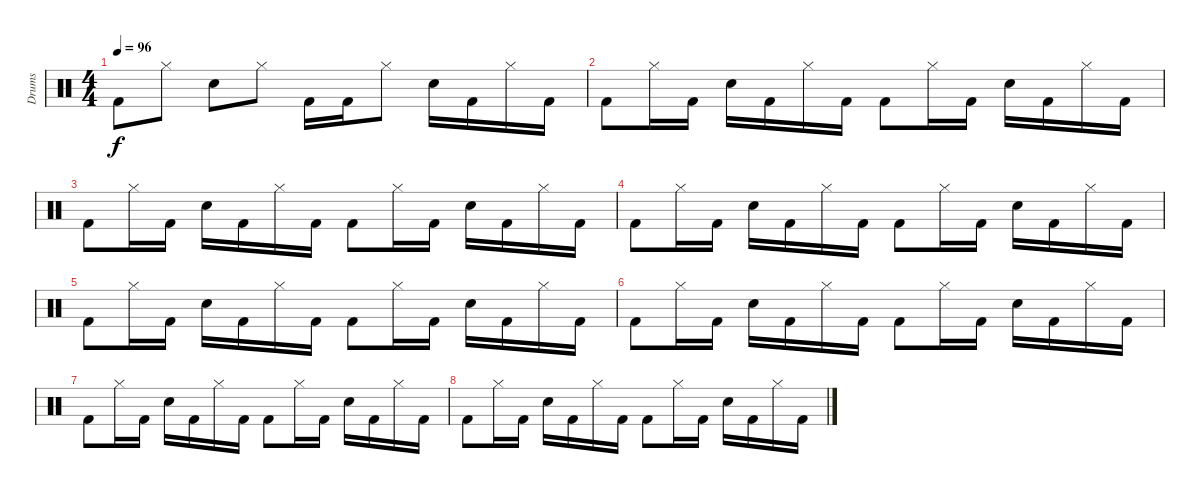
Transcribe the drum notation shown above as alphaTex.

\track ("Drums" "Drums") {instrument percussion}
\staff {score}
\articulation defaults
\ts (4 4)
\tempo 96
\clef neutral
\ks c "Kick (hit) 2".8{dy f} "Hi-Hat (closed)".8 "Snare (hit) 2".8 "Hi-Hat (closed)".8 "Kick (hit) 2".16 "Kick (hit) 2".16 "Hi-Hat (closed)".8 "Snare (hit) 2".16 "Kick (hit) 2".16 "Hi-Hat (closed)".16 "Kick (hit) 2".16
|
"Kick (hit) 2".8 "Hi-Hat (closed)".16 "Kick (hit) 2".16 "Snare (hit) 2".16 "Kick (hit) 2".16 "Hi-Hat (closed)".16 "Kick (hit) 2".16 "Kick (hit) 2".8 "Hi-Hat (closed)".16 "Kick (hit) 2".16 "Snare (hit) 2".16 "Kick (hit) 2".16 "Hi-Hat (closed)".16 "Kick (hit) 2".16 |
"Kick (hit) 2".8 "Hi-Hat (closed)".16 "Kick (hit) 2".16 "Snare (hit) 2".16 "Kick (hit) 2".16 "Hi-Hat (closed)".16 "Kick (hit) 2".16 "Kick (hit) 2".8 "Hi-Hat (closed)".16 "Kick (hit) 2".16 "Snare (hit) 2".16 "Kick (hit) 2".16 "Hi-Hat (closed)".16 "Kick (hit) 2".16 |
"Kick (hit) 2".8 "Hi-Hat (closed)".16 "Kick (hit) 2".16 "Snare (hit) 2".16 "Kick (hit) 2".16 "Hi-Hat (closed)".16 "Kick (hit) 2".16 "Kick (hit) 2".8 "Hi-Hat (closed)".16 "Kick (hit) 2".16 "Snare (hit) 2".16 "Kick (hit) 2".16 "Hi-Hat (closed)".16 "Kick (hit) 2".16 |
"Kick (hit) 2".8 "Hi-Hat (closed)".16 "Kick (hit) 2".16 "Snare (hit) 2".16 "Kick (hit) 2".16 "Hi-Hat (closed)".16 "Kick (hit) 2".16 "Kick (hit) 2".8 "Hi-Hat (closed)".16 "Kick (hit) 2".16 "Snare (hit) 2".16 "Kick (hit) 2".16 "Hi-Hat (closed)".16 "Kick (hit) 2".16 |
"Kick (hit) 2".8 "Hi-Hat (closed)".16 "Kick (hit) 2".16 "Snare (hit) 2".16 "Kick (hit) 2".16 "Hi-Hat (closed)".16 "Kick (hit) 2".16 "Kick (hit) 2".8 "Hi-Hat (closed)".16 "Kick (hit) 2".16 "Snare (hit) 2".16 "Kick (hit) 2".16 "Hi-Hat (closed)".16 "Kick (hit) 2".16 |
"Kick (hit) 2".8 "Hi-Hat (closed)".16 "Kick (hit) 2".16 "Snare (hit) 2".16 "Kick (hit) 2".16 "Hi-Hat (closed)".16 "Kick (hit) 2".16 "Kick (hit) 2".8 "Hi-Hat (closed)".16 "Kick (hit) 2".16 "Snare (hit) 2".16 "Kick (hit) 2".16 "Hi-Hat (closed)".16 "Kick (hit) 2".16 |
"Kick (hit) 2".8 "Hi-Hat (closed)".16 "Kick (hit) 2".16 "Snare (hit) 2".16 "Kick (hit) 2".16 "Hi-Hat (closed)".16 "Kick (hit) 2".16 "Kick (hit) 2".8 "Hi-Hat (closed)".16 "Kick (hit) 2".16 "Snare (hit) 2".16 "Kick (hit) 2".16 "Hi-Hat (closed)".16 "Kick (hit) 2".16
